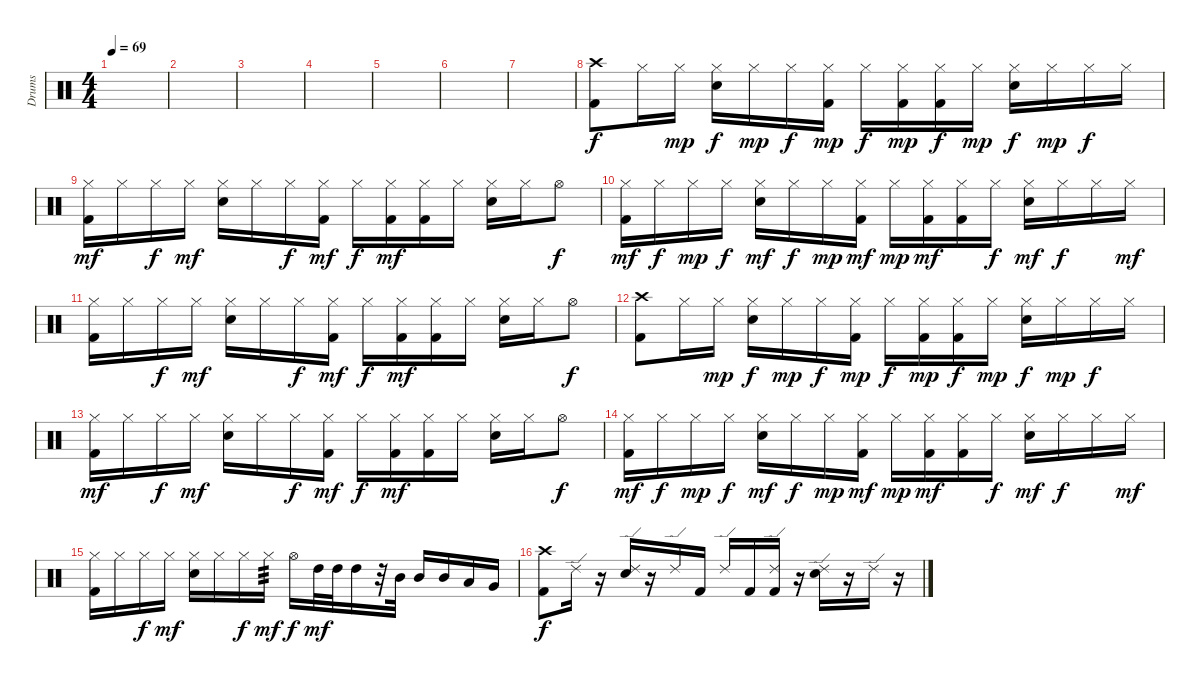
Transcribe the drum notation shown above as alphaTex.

\track ("Drums" "Drums") {instrument percussion}
\staff {score}
\articulation defaults
\ts (4 4)
\tempo 69
\clef neutral
\ks c
|
|
|
|
|
|
|
("Kick (hit) 2" "Crash high (hit)").8 "Hi-Hat (closed)".16 "Hi-Hat (closed)".16{dy mp} ("Hi-Hat (closed)" "Electric Snare (hit)").16{dy f} "Hi-Hat (closed)".16{dy mp} "Hi-Hat (closed)".16{dy f} ("Hi-Hat (closed)" "Kick (hit) 2").16{dy mp} "Hi-Hat (closed)".16{dy f} ("Hi-Hat (closed)" "Kick (hit) 2").16{dy mp} ("Hi-Hat (closed)" "Kick (hit) 2").16{dy f} "Hi-Hat (closed)".16{dy mp} ("Hi-Hat (closed)" "Electric Snare (hit)").16{dy f} "Hi-Hat (closed)".16{dy mp} "Hi-Hat (closed)".16{dy f} "Hi-Hat (closed)".16 |
("Hi-Hat (closed)" "Kick (hit) 2").16{dy mf} "Hi-Hat (closed)".16 "Hi-Hat (closed)".16{dy f} "Hi-Hat (closed)".16{dy mf} ("Hi-Hat (closed)" "Electric Snare (hit)").16 "Hi-Hat (closed)".16 "Hi-Hat (closed)".16{dy f} ("Hi-Hat (closed)" "Kick (hit) 2").16{dy mf} "Hi-Hat (closed)".16{dy f} ("Hi-Hat (closed)" "Kick (hit) 2").16{dy mf} ("Hi-Hat (closed)" "Kick (hit) 2").16 "Hi-Hat (closed)".16 ("Hi-Hat (closed)" "Electric Snare (hit)").16 "Hi-Hat (closed)".16 "Hi-Hat (open)".8{dy f} |
("Kick (hit) 2" "Hi-Hat (closed)").16{dy mf} "Hi-Hat (closed)".16{dy f} "Hi-Hat (closed)".16{dy mp} "Hi-Hat (closed)".16{dy f} ("Hi-Hat (closed)" "Electric Snare (hit)").16{dy mf} "Hi-Hat (closed)".16{dy f} "Hi-Hat (closed)".16{dy mp} ("Hi-Hat (closed)" "Kick (hit) 2").16{dy mf} "Hi-Hat (closed)".16{dy mp} ("Hi-Hat (closed)" "Kick (hit) 2").16{dy mf} ("Hi-Hat (closed)" "Kick (hit) 2").16 "Hi-Hat (closed)".16{dy f} ("Hi-Hat (closed)" "Electric Snare (hit)").16{dy mf} "Hi-Hat (closed)".16{dy f} "Hi-Hat (closed)".16 "Hi-Hat (closed)".16{dy mf} |
("Hi-Hat (closed)" "Kick (hit) 2").16 "Hi-Hat (closed)".16 "Hi-Hat (closed)".16{dy f} "Hi-Hat (closed)".16{dy mf} ("Hi-Hat (closed)" "Electric Snare (hit)").16 "Hi-Hat (closed)".16 "Hi-Hat (closed)".16{dy f} ("Hi-Hat (closed)" "Kick (hit) 2").16{dy mf} "Hi-Hat (closed)".16{dy f} ("Hi-Hat (closed)" "Kick (hit) 2").16{dy mf} ("Hi-Hat (closed)" "Kick (hit) 2").16 "Hi-Hat (closed)".16 ("Hi-Hat (closed)" "Electric Snare (hit)").16 "Hi-Hat (closed)".16 "Hi-Hat (open)".8{dy f} |
("Kick (hit) 2" "Crash high (hit)").8 "Hi-Hat (closed)".16 "Hi-Hat (closed)".16{dy mp} ("Hi-Hat (closed)" "Electric Snare (hit)").16{dy f} "Hi-Hat (closed)".16{dy mp} "Hi-Hat (closed)".16{dy f} ("Hi-Hat (closed)" "Kick (hit) 2").16{dy mp} "Hi-Hat (closed)".16{dy f} ("Hi-Hat (closed)" "Kick (hit) 2").16{dy mp} ("Hi-Hat (closed)" "Kick (hit) 2").16{dy f} "Hi-Hat (closed)".16{dy mp} ("Hi-Hat (closed)" "Electric Snare (hit)").16{dy f} "Hi-Hat (closed)".16{dy mp} "Hi-Hat (closed)".16{dy f} "Hi-Hat (closed)".16 |
("Hi-Hat (closed)" "Kick (hit) 2").16{dy mf} "Hi-Hat (closed)".16 "Hi-Hat (closed)".16{dy f} "Hi-Hat (closed)".16{dy mf} ("Hi-Hat (closed)" "Electric Snare (hit)").16 "Hi-Hat (closed)".16 "Hi-Hat (closed)".16{dy f} ("Hi-Hat (closed)" "Kick (hit) 2").16{dy mf} "Hi-Hat (closed)".16{dy f} ("Hi-Hat (closed)" "Kick (hit) 2").16{dy mf} ("Hi-Hat (closed)" "Kick (hit) 2").16 "Hi-Hat (closed)".16 ("Hi-Hat (closed)" "Electric Snare (hit)").16 "Hi-Hat (closed)".16 "Hi-Hat (open)".8{dy f} |
("Kick (hit) 2" "Hi-Hat (closed)").16{dy mf} "Hi-Hat (closed)".16{dy f} "Hi-Hat (closed)".16{dy mp} "Hi-Hat (closed)".16{dy f} ("Hi-Hat (closed)" "Electric Snare (hit)").16{dy mf} "Hi-Hat (closed)".16{dy f} "Hi-Hat (closed)".16{dy mp} ("Hi-Hat (closed)" "Kick (hit) 2").16{dy mf} "Hi-Hat (closed)".16{dy mp} ("Hi-Hat (closed)" "Kick (hit) 2").16{dy mf} ("Hi-Hat (closed)" "Kick (hit) 2").16 "Hi-Hat (closed)".16{dy f} ("Hi-Hat (closed)" "Electric Snare (hit)").16{dy mf} "Hi-Hat (closed)".16{dy f} "Hi-Hat (closed)".16 "Hi-Hat (closed)".16{dy mf} |
("Hi-Hat (closed)" "Kick (hit) 2").16 "Hi-Hat (closed)".16 "Hi-Hat (closed)".16{dy f} "Hi-Hat (closed)".16{dy mf} ("Hi-Hat (closed)" "Electric Snare (hit)").16 "Hi-Hat (closed)".16 "Hi-Hat (closed)".16{dy f} "Hi-Hat (closed)".16{tp 3 dy mf} "Hi-Hat (open)".16{dy f} "High Tom (hit)".32{dy mf} "High Tom (hit)".32 "High Tom (hit)".16 r.32 "Mid Tom (hit)".32 "Mid Tom (hit)".16 "Mid Tom (hit)".16 "Low Tom (hit)".16 "Very Low Tom (hit)".16 |
("Kick (hit) 2" "Crash high (hit)").8{dy f} "Ride (edge) 2".16 r.16 ("Ride (edge) 2" "Electric Snare (hit)").16 r.16 "Ride (edge) 2".16 "Kick (hit) 2".16 "Ride (edge) 2".16 "Kick (hit) 2".16 ("Ride (edge) 2" "Kick (hit) 2").16 r.16 ("Ride (edge) 2" "Electric Snare (hit)").16 r.16 "Ride (edge) 2".16 r.16
